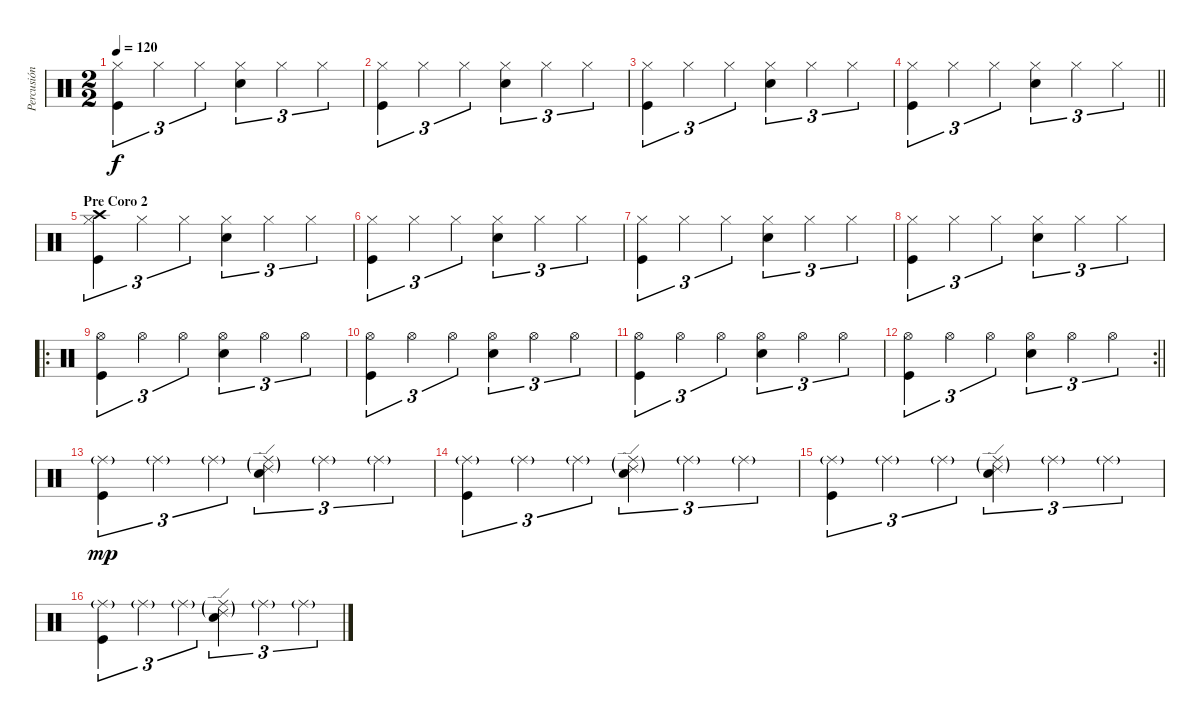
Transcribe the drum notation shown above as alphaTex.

\track ("Percusión" "Percusión") {instrument percussion}
\staff {score}
\articulation defaults
\ts (2 2)
\tempo 120
\clef neutral
\ks c
("Hi-Hat (closed)" "Kick (hit)").4{tu (3 2) dy f} "Hi-Hat (closed)".4{tu (3 2)} "Hi-Hat (closed)".4{tu (3 2)} ("Hi-Hat (closed)" "Electric Snare (hit)").4{tu (3 2)} "Hi-Hat (closed)".4{tu (3 2)} "Hi-Hat (closed)".4{tu (3 2)} |
("Hi-Hat (closed)" "Kick (hit)").4{tu (3 2)} "Hi-Hat (closed)".4{tu (3 2)} "Hi-Hat (closed)".4{tu (3 2)} ("Hi-Hat (closed)" "Electric Snare (hit)").4{tu (3 2)} "Hi-Hat (closed)".4{tu (3 2)} "Hi-Hat (closed)".4{tu (3 2)} |
("Hi-Hat (closed)" "Kick (hit)").4{tu (3 2)} "Hi-Hat (closed)".4{tu (3 2)} "Hi-Hat (closed)".4{tu (3 2)} ("Hi-Hat (closed)" "Electric Snare (hit)").4{tu (3 2)} "Hi-Hat (closed)".4{tu (3 2)} "Hi-Hat (closed)".4{tu (3 2)} |
\barLineRight lightlight
("Hi-Hat (closed)" "Kick (hit)").4{tu (3 2)} "Hi-Hat (closed)".4{tu (3 2)} "Hi-Hat (closed)".4{tu (3 2)} ("Hi-Hat (closed)" "Electric Snare (hit)").4{tu (3 2)} "Hi-Hat (closed)".4{tu (3 2)} "Hi-Hat (closed)".4{tu (3 2)} |
\section ("" "Pre Coro 2")
("Crash high (hit)" "Hi-Hat (closed)" "Kick (hit)").4{tu (3 2)} "Hi-Hat (closed)".4{tu (3 2)} "Hi-Hat (closed)".4{tu (3 2)} ("Hi-Hat (closed)" "Electric Snare (hit)").4{tu (3 2)} "Hi-Hat (closed)".4{tu (3 2)} "Hi-Hat (closed)".4{tu (3 2)} |
("Hi-Hat (closed)" "Kick (hit)").4{tu (3 2)} "Hi-Hat (closed)".4{tu (3 2)} "Hi-Hat (closed)".4{tu (3 2)} ("Hi-Hat (closed)" "Electric Snare (hit)").4{tu (3 2)} "Hi-Hat (closed)".4{tu (3 2)} "Hi-Hat (closed)".4{tu (3 2)} |
("Hi-Hat (closed)" "Kick (hit)").4{tu (3 2)} "Hi-Hat (closed)".4{tu (3 2)} "Hi-Hat (closed)".4{tu (3 2)} ("Hi-Hat (closed)" "Electric Snare (hit)").4{tu (3 2)} "Hi-Hat (closed)".4{tu (3 2)} "Hi-Hat (closed)".4{tu (3 2)} |
("Hi-Hat (closed)" "Kick (hit)").4{tu (3 2)} "Hi-Hat (closed)".4{tu (3 2)} "Hi-Hat (closed)".4{tu (3 2)} ("Hi-Hat (closed)" "Electric Snare (hit)").4{tu (3 2)} "Hi-Hat (closed)".4{tu (3 2)} "Hi-Hat (closed)".4{tu (3 2)} |
\ro
("Hi-Hat (open)" "Kick (hit)").4{tu (3 2)} "Hi-Hat (open)".4{tu (3 2)} "Hi-Hat (open)".4{tu (3 2)} ("Hi-Hat (open)" "Electric Snare (hit)").4{tu (3 2)} "Hi-Hat (open)".4{tu (3 2)} "Hi-Hat (open)".4{tu (3 2)} |
("Hi-Hat (open)" "Kick (hit)").4{tu (3 2)} "Hi-Hat (open)".4{tu (3 2)} "Hi-Hat (open)".4{tu (3 2)} ("Hi-Hat (open)" "Electric Snare (hit)").4{tu (3 2)} "Hi-Hat (open)".4{tu (3 2)} "Hi-Hat (open)".4{tu (3 2)} |
("Hi-Hat (open)" "Kick (hit)").4{tu (3 2)} "Hi-Hat (open)".4{tu (3 2)} "Hi-Hat (open)".4{tu (3 2)} ("Hi-Hat (open)" "Electric Snare (hit)").4{tu (3 2)} "Hi-Hat (open)".4{tu (3 2)} "Hi-Hat (open)".4{tu (3 2)} |
\rc 2
\barLineRight lightlight
("Hi-Hat (open)" "Kick (hit)").4{tu (3 2)} "Hi-Hat (open)".4{tu (3 2)} "Hi-Hat (open)".4{tu (3 2)} ("Hi-Hat (open)" "Electric Snare (hit)").4{tu (3 2)} "Hi-Hat (open)".4{tu (3 2)} "Hi-Hat (open)".4{tu (3 2)} |
("Ride (middle)"{g} "Kick (hit)").4{tu (3 2) dy mp} "Ride (middle)"{g}.4{tu (3 2)} "Ride (middle)"{g}.4{tu (3 2)} ("Ride (middle)"{g} "Ride (edge) 2"{g} "Electric Snare (hit)").4{tu (3 2)} "Ride (middle)"{g}.4{tu (3 2)} "Ride (middle)"{g}.4{tu (3 2)} |
("Ride (middle)"{g} "Kick (hit)").4{tu (3 2)} "Ride (middle)"{g}.4{tu (3 2)} "Ride (middle)"{g}.4{tu (3 2)} ("Ride (middle)"{g} "Ride (edge) 2"{g} "Electric Snare (hit)").4{tu (3 2)} "Ride (middle)"{g}.4{tu (3 2)} "Ride (middle)"{g}.4{tu (3 2)} |
("Ride (middle)"{g} "Kick (hit)").4{tu (3 2)} "Ride (middle)"{g}.4{tu (3 2)} "Ride (middle)"{g}.4{tu (3 2)} ("Ride (middle)"{g} "Ride (edge) 2"{g} "Electric Snare (hit)").4{tu (3 2)} "Ride (middle)"{g}.4{tu (3 2)} "Ride (middle)"{g}.4{tu (3 2)} |
("Ride (middle)"{g} "Kick (hit)").4{tu (3 2)} "Ride (middle)"{g}.4{tu (3 2)} "Ride (middle)"{g}.4{tu (3 2)} ("Ride (middle)"{g} "Ride (edge) 2"{g} "Electric Snare (hit)").4{tu (3 2)} "Ride (middle)"{g}.4{tu (3 2)} "Ride (middle)"{g}.4{tu (3 2)}
